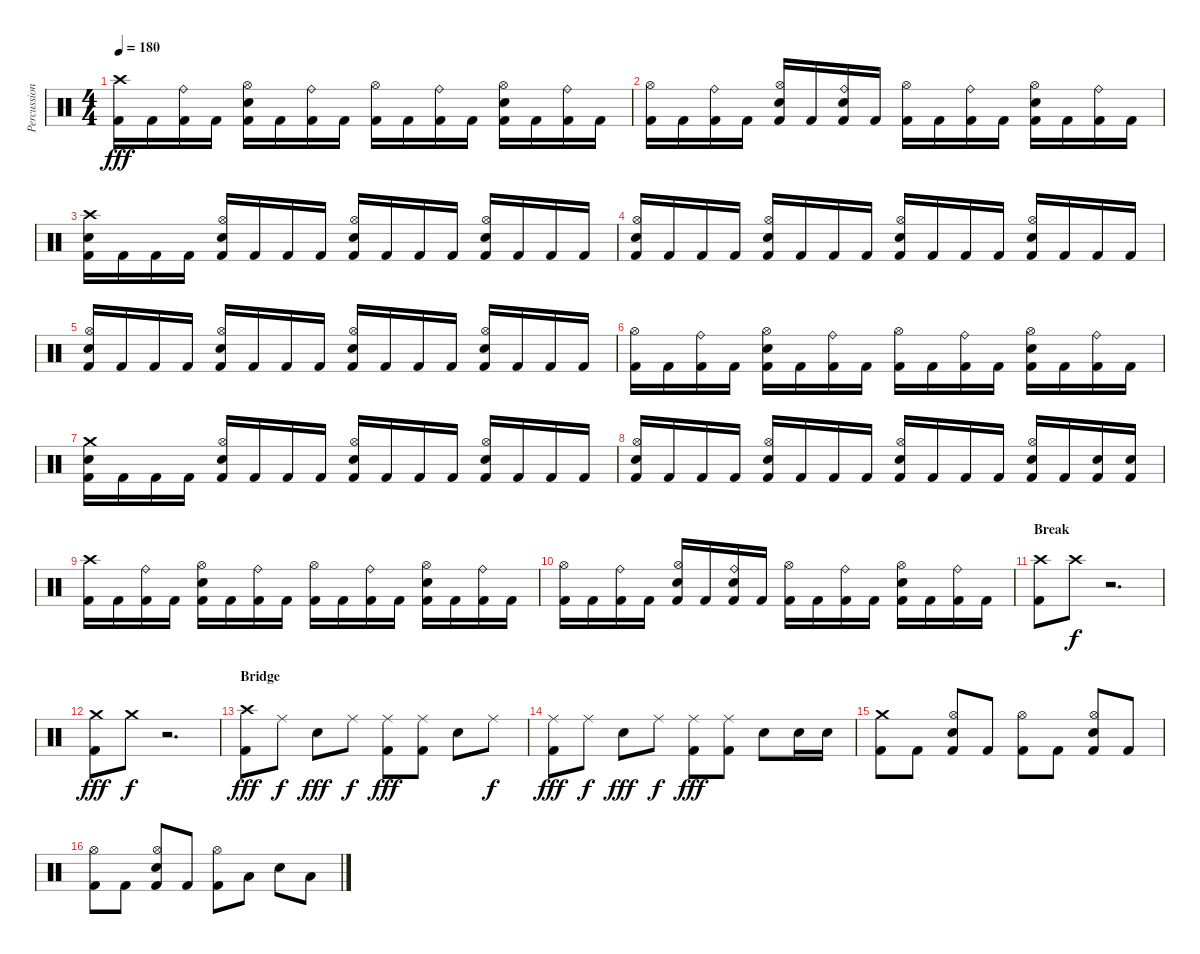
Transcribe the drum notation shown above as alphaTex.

\track ("Percussion" "Percussion") {instrument percussion}
\staff {score}
\articulation defaults
\ts (4 4)
\tempo 180
\clef neutral
\ks c
("Crash high (hit)" "Kick (hit) 2").16{dy fff} "Kick (hit) 2".16 ("Ride (bell)" "Kick (hit) 2").16 "Kick (hit) 2".16 ("Hi-Hat (open)" "Snare (hit) 2" "Kick (hit) 2").16 "Kick (hit) 2".16 ("Ride (bell)" "Kick (hit) 2").16 "Kick (hit) 2".16 ("Hi-Hat (open)" "Kick (hit) 2").16 "Kick (hit) 2".16 ("Ride (bell)" "Kick (hit) 2").16 "Kick (hit) 2".16 ("Hi-Hat (open)" "Snare (hit) 2" "Kick (hit) 2").16 "Kick (hit) 2".16 ("Ride (bell)" "Kick (hit) 2").16 "Kick (hit) 2".16 |
("Hi-Hat (open)" "Kick (hit) 2").16 "Kick (hit) 2".16 ("Ride (bell)" "Kick (hit) 2").16 "Kick (hit) 2".16 ("Hi-Hat (open)" "Snare (hit) 2" "Kick (hit) 2").16 "Kick (hit) 2".16 ("Ride (bell)" "Snare (hit) 2" "Kick (hit) 2").16 "Kick (hit) 2".16 ("Hi-Hat (open)" "Kick (hit) 2").16 "Kick (hit) 2".16 ("Ride (bell)" "Kick (hit) 2").16 "Kick (hit) 2".16 ("Hi-Hat (open)" "Snare (hit) 2" "Kick (hit) 2").16 "Kick (hit) 2".16 ("Ride (bell)" "Kick (hit) 2").16 "Kick (hit) 2".16 |
("Crash high (hit)" "Snare (hit) 2" "Kick (hit) 2").16 "Kick (hit) 2".16 "Kick (hit) 2".16 "Kick (hit) 2".16 ("Hi-Hat (open)" "Snare (hit) 2" "Kick (hit) 2").16 "Kick (hit) 2".16 "Kick (hit) 2".16 "Kick (hit) 2".16 ("Hi-Hat (open)" "Snare (hit) 2" "Kick (hit) 2").16 "Kick (hit) 2".16 "Kick (hit) 2".16 "Kick (hit) 2".16 ("Hi-Hat (open)" "Snare (hit) 2" "Kick (hit) 2").16 "Kick (hit) 2".16 "Kick (hit) 2".16 "Kick (hit) 2".16 |
("Hi-Hat (open)" "Snare (hit) 2" "Kick (hit) 2").16 "Kick (hit) 2".16 "Kick (hit) 2".16 "Kick (hit) 2".16 ("Hi-Hat (open)" "Snare (hit) 2" "Kick (hit) 2").16 "Kick (hit) 2".16 "Kick (hit) 2".16 "Kick (hit) 2".16 ("Hi-Hat (open)" "Snare (hit) 2" "Kick (hit) 2").16 "Kick (hit) 2".16 "Kick (hit) 2".16 "Kick (hit) 2".16 ("Hi-Hat (open)" "Snare (hit) 2" "Kick (hit) 2").16 "Kick (hit) 2".16 "Kick (hit) 2".16 "Kick (hit) 2".16 |
("Hi-Hat (open)" "Snare (hit) 2" "Kick (hit) 2").16 "Kick (hit) 2".16 "Kick (hit) 2".16 "Kick (hit) 2".16 ("Hi-Hat (open)" "Snare (hit) 2" "Kick (hit) 2").16 "Kick (hit) 2".16 "Kick (hit) 2".16 "Kick (hit) 2".16 ("Hi-Hat (open)" "Snare (hit) 2" "Kick (hit) 2").16 "Kick (hit) 2".16 "Kick (hit) 2".16 "Kick (hit) 2".16 ("Hi-Hat (open)" "Snare (hit) 2" "Kick (hit) 2").16 "Kick (hit) 2".16 "Kick (hit) 2".16 "Kick (hit) 2".16 |
("Hi-Hat (open)" "Kick (hit) 2").16 "Kick (hit) 2".16 ("Ride (bell)" "Kick (hit) 2").16 "Kick (hit) 2".16 ("Hi-Hat (open)" "Snare (hit) 2" "Kick (hit) 2").16 "Kick (hit) 2".16 ("Ride (bell)" "Kick (hit) 2").16 "Kick (hit) 2".16 ("Hi-Hat (open)" "Kick (hit) 2").16 "Kick (hit) 2".16 ("Ride (bell)" "Kick (hit) 2").16 "Kick (hit) 2".16 ("Hi-Hat (open)" "Snare (hit) 2" "Kick (hit) 2").16 "Kick (hit) 2".16 ("Ride (bell)" "Kick (hit) 2").16 "Kick (hit) 2".16 |
("Crash medium (hit)" "Snare (hit) 2" "Kick (hit) 2").16 "Kick (hit) 2".16 "Kick (hit) 2".16 "Kick (hit) 2".16 ("Hi-Hat (open)" "Snare (hit) 2" "Kick (hit) 2").16 "Kick (hit) 2".16 "Kick (hit) 2".16 "Kick (hit) 2".16 ("Hi-Hat (open)" "Snare (hit) 2" "Kick (hit) 2").16 "Kick (hit) 2".16 "Kick (hit) 2".16 "Kick (hit) 2".16 ("Hi-Hat (open)" "Snare (hit) 2" "Kick (hit) 2").16 "Kick (hit) 2".16 "Kick (hit) 2".16 "Kick (hit) 2".16 |
("Hi-Hat (open)" "Snare (hit) 2" "Kick (hit) 2").16 "Kick (hit) 2".16 "Kick (hit) 2".16 "Kick (hit) 2".16 ("Hi-Hat (open)" "Snare (hit) 2" "Kick (hit) 2").16 "Kick (hit) 2".16 "Kick (hit) 2".16 "Kick (hit) 2".16 ("Hi-Hat (open)" "Snare (hit) 2" "Kick (hit) 2").16 "Kick (hit) 2".16 "Kick (hit) 2".16 "Kick (hit) 2".16 ("Hi-Hat (open)" "Snare (hit) 2" "Kick (hit) 2").16 "Kick (hit) 2".16 ("Snare (hit) 2" "Kick (hit) 2").16 ("Snare (hit) 2" "Kick (hit) 2").16 |
("Crash high (hit)" "Kick (hit) 2").16 "Kick (hit) 2".16 ("Ride (bell)" "Kick (hit) 2").16 "Kick (hit) 2".16 ("Hi-Hat (open)" "Snare (hit) 2" "Kick (hit) 2").16 "Kick (hit) 2".16 ("Ride (bell)" "Kick (hit) 2").16 "Kick (hit) 2".16 ("Hi-Hat (open)" "Kick (hit) 2").16 "Kick (hit) 2".16 ("Ride (bell)" "Kick (hit) 2").16 "Kick (hit) 2".16 ("Hi-Hat (open)" "Snare (hit) 2" "Kick (hit) 2").16 "Kick (hit) 2".16 ("Ride (bell)" "Kick (hit) 2").16 "Kick (hit) 2".16 |
("Hi-Hat (open)" "Kick (hit) 2").16 "Kick (hit) 2".16 ("Ride (bell)" "Kick (hit) 2").16 "Kick (hit) 2".16 ("Hi-Hat (open)" "Snare (hit) 2" "Kick (hit) 2").16 "Kick (hit) 2".16 ("Ride (bell)" "Snare (hit) 2" "Kick (hit) 2").16 "Kick (hit) 2".16 ("Hi-Hat (open)" "Kick (hit) 2").16 "Kick (hit) 2".16 ("Ride (bell)" "Kick (hit) 2").16 "Kick (hit) 2".16 ("Hi-Hat (open)" "Snare (hit) 2" "Kick (hit) 2").16 "Kick (hit) 2".16 ("Ride (bell)" "Kick (hit) 2").16 "Kick (hit) 2".16 |
\section ("" "Break")
("Crash high (hit)" "Kick (hit) 2").8 "Crash high (hit)".8{dy f volume 0} r.2{d} |
("Crash medium (hit)" "Kick (hit) 2").8{dy fff volume 16} "Crash medium (hit)".8{dy f volume 0} r.2{d} |
\section ("" "Bridge")
("Crash high (hit)" "Kick (hit) 2").8{dy fff volume 16} "Ride (middle)".8{dy f} "Snare (hit) 2".8{dy fff} "Ride (middle)".8{dy f} ("Ride (middle)" "Kick (hit) 2").8{dy fff} ("Ride (middle)" "Kick (hit) 2").8 "Snare (hit) 2".8 "Ride (middle)".8{dy f} |
("Ride (middle)" "Kick (hit) 2").8{dy fff} "Ride (middle)".8{dy f} "Snare (hit) 2".8{dy fff} "Ride (middle)".8{dy f} ("Ride (middle)" "Kick (hit) 2").8{dy fff} ("Ride (middle)" "Kick (hit) 2").8 "Snare (hit) 2".8 "Snare (hit) 2".16 "Snare (hit) 2".16 |
("Crash medium (hit)" "Kick (hit) 2").8 "Kick (hit) 2".8 ("Hi-Hat (open)" "Snare (hit) 2" "Kick (hit) 2").8 "Kick (hit) 2".8 ("Hi-Hat (open)" "Kick (hit) 2").8 "Kick (hit) 2".8 ("Hi-Hat (open)" "Snare (hit) 2" "Kick (hit) 2").8 "Kick (hit) 2".8 |
("Hi-Hat (open)" "Kick (hit) 2").8 "Kick (hit) 2".8 ("Hi-Hat (open)" "Snare (hit) 2" "Kick (hit) 2").8 "Kick (hit) 2".8 ("Hi-Hat (open)" "Kick (hit) 2").8 "Low Tom (hit)".8 "Snare (hit) 2".8 "Low Tom (hit)".8
